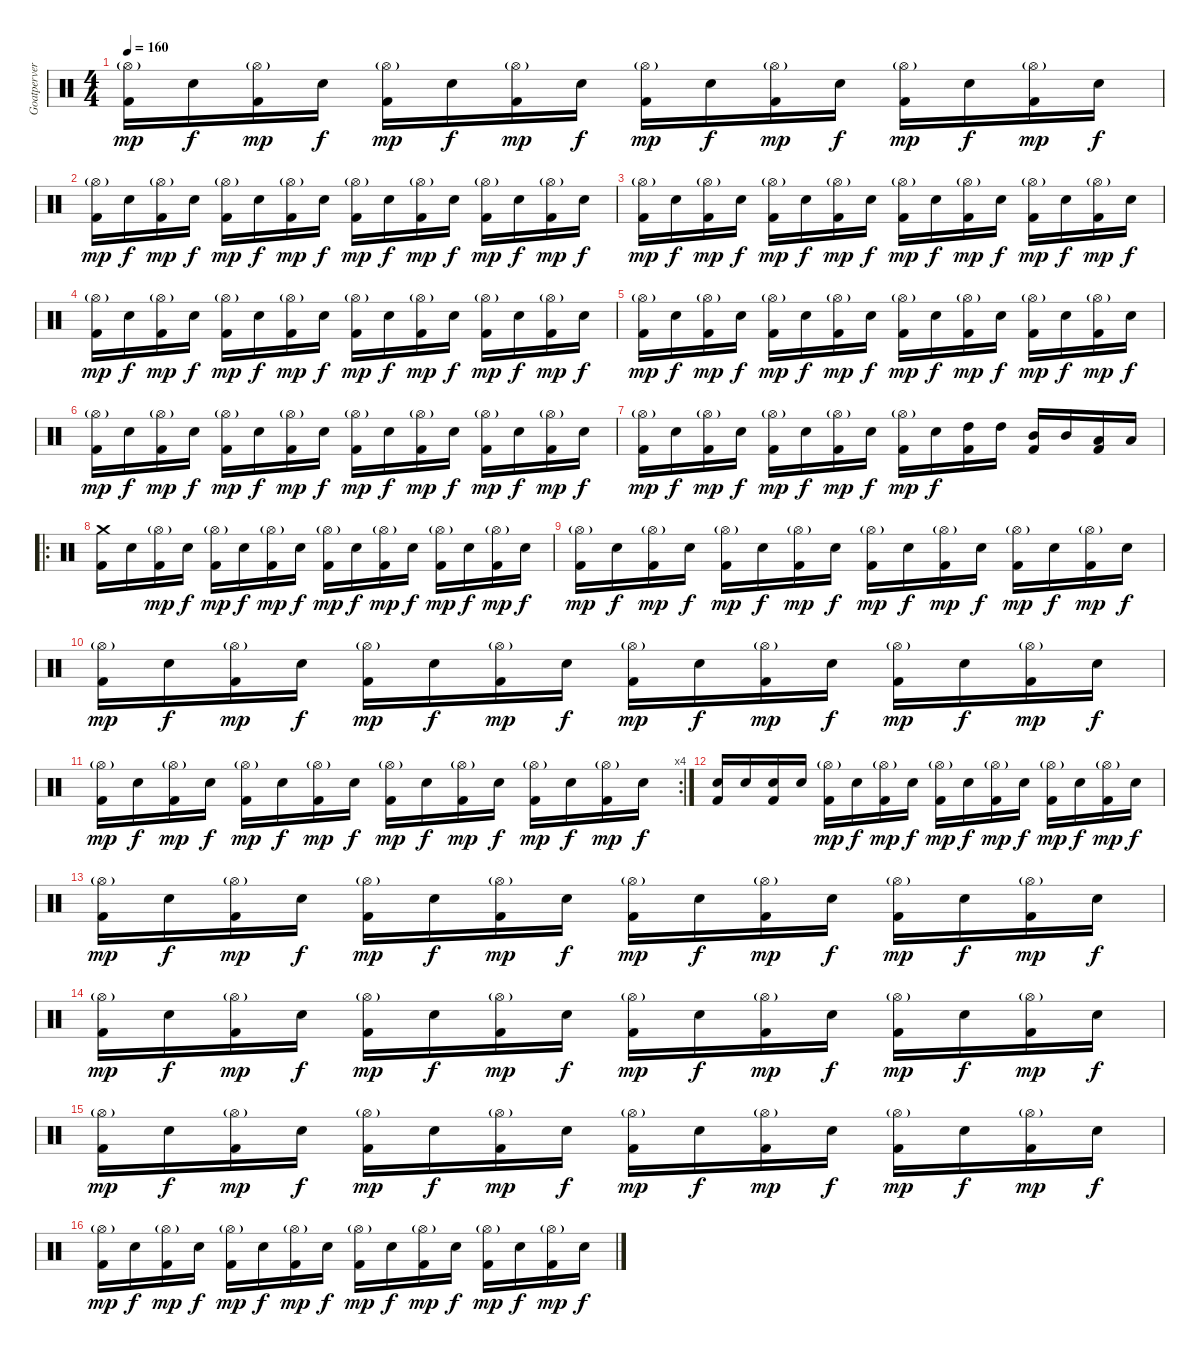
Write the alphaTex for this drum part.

\track ("Goatpervertor " "Goatperver") {instrument percussion}
\staff {score}
\articulation defaults
\ts (4 4)
\tempo 160
\clef neutral
\ks c
("Hi-Hat (open)"{g} "Kick (hit) 2").16{dy mp} "Electric Snare (hit)".16{dy f} ("Hi-Hat (open)"{g} "Kick (hit) 2").16{dy mp} "Electric Snare (hit)".16{dy f} ("Hi-Hat (open)"{g} "Kick (hit) 2").16{dy mp} "Electric Snare (hit)".16{dy f} ("Hi-Hat (open)"{g} "Kick (hit) 2").16{dy mp} "Electric Snare (hit)".16{dy f} ("Hi-Hat (open)"{g} "Kick (hit) 2").16{dy mp} "Electric Snare (hit)".16{dy f} ("Hi-Hat (open)"{g} "Kick (hit) 2").16{dy mp} "Electric Snare (hit)".16{dy f} ("Hi-Hat (open)"{g} "Kick (hit) 2").16{dy mp} "Electric Snare (hit)".16{dy f} ("Hi-Hat (open)"{g} "Kick (hit) 2").16{dy mp} "Electric Snare (hit)".16{dy f} |
("Hi-Hat (open)"{g} "Kick (hit) 2").16{dy mp} "Electric Snare (hit)".16{dy f} ("Hi-Hat (open)"{g} "Kick (hit) 2").16{dy mp} "Electric Snare (hit)".16{dy f} ("Hi-Hat (open)"{g} "Kick (hit) 2").16{dy mp} "Electric Snare (hit)".16{dy f} ("Hi-Hat (open)"{g} "Kick (hit) 2").16{dy mp} "Electric Snare (hit)".16{dy f} ("Hi-Hat (open)"{g} "Kick (hit) 2").16{dy mp} "Electric Snare (hit)".16{dy f} ("Hi-Hat (open)"{g} "Kick (hit) 2").16{dy mp} "Electric Snare (hit)".16{dy f} ("Hi-Hat (open)"{g} "Kick (hit) 2").16{dy mp} "Electric Snare (hit)".16{dy f} ("Hi-Hat (open)"{g} "Kick (hit) 2").16{dy mp} "Electric Snare (hit)".16{dy f} |
("Hi-Hat (open)"{g} "Kick (hit) 2").16{dy mp} "Electric Snare (hit)".16{dy f} ("Hi-Hat (open)"{g} "Kick (hit) 2").16{dy mp} "Electric Snare (hit)".16{dy f} ("Hi-Hat (open)"{g} "Kick (hit) 2").16{dy mp} "Electric Snare (hit)".16{dy f} ("Hi-Hat (open)"{g} "Kick (hit) 2").16{dy mp} "Electric Snare (hit)".16{dy f} ("Hi-Hat (open)"{g} "Kick (hit) 2").16{dy mp} "Electric Snare (hit)".16{dy f} ("Hi-Hat (open)"{g} "Kick (hit) 2").16{dy mp} "Electric Snare (hit)".16{dy f} ("Hi-Hat (open)"{g} "Kick (hit) 2").16{dy mp} "Electric Snare (hit)".16{dy f} ("Hi-Hat (open)"{g} "Kick (hit) 2").16{dy mp} "Electric Snare (hit)".16{dy f} |
("Hi-Hat (open)"{g} "Kick (hit) 2").16{dy mp} "Electric Snare (hit)".16{dy f} ("Hi-Hat (open)"{g} "Kick (hit) 2").16{dy mp} "Electric Snare (hit)".16{dy f} ("Hi-Hat (open)"{g} "Kick (hit) 2").16{dy mp} "Electric Snare (hit)".16{dy f} ("Hi-Hat (open)"{g} "Kick (hit) 2").16{dy mp} "Electric Snare (hit)".16{dy f} ("Hi-Hat (open)"{g} "Kick (hit) 2").16{dy mp} "Electric Snare (hit)".16{dy f} ("Hi-Hat (open)"{g} "Kick (hit) 2").16{dy mp} "Electric Snare (hit)".16{dy f} ("Hi-Hat (open)"{g} "Kick (hit) 2").16{dy mp} "Electric Snare (hit)".16{dy f} ("Hi-Hat (open)"{g} "Kick (hit) 2").16{dy mp} "Electric Snare (hit)".16{dy f} |
("Hi-Hat (open)"{g} "Kick (hit) 2").16{dy mp} "Electric Snare (hit)".16{dy f} ("Hi-Hat (open)"{g} "Kick (hit) 2").16{dy mp} "Electric Snare (hit)".16{dy f} ("Hi-Hat (open)"{g} "Kick (hit) 2").16{dy mp} "Electric Snare (hit)".16{dy f} ("Hi-Hat (open)"{g} "Kick (hit) 2").16{dy mp} "Electric Snare (hit)".16{dy f} ("Hi-Hat (open)"{g} "Kick (hit) 2").16{dy mp} "Electric Snare (hit)".16{dy f} ("Hi-Hat (open)"{g} "Kick (hit) 2").16{dy mp} "Electric Snare (hit)".16{dy f} ("Hi-Hat (open)"{g} "Kick (hit) 2").16{dy mp} "Electric Snare (hit)".16{dy f} ("Hi-Hat (open)"{g} "Kick (hit) 2").16{dy mp} "Electric Snare (hit)".16{dy f} |
("Hi-Hat (open)"{g} "Kick (hit) 2").16{dy mp} "Electric Snare (hit)".16{dy f} ("Hi-Hat (open)"{g} "Kick (hit) 2").16{dy mp} "Electric Snare (hit)".16{dy f} ("Hi-Hat (open)"{g} "Kick (hit) 2").16{dy mp} "Electric Snare (hit)".16{dy f} ("Hi-Hat (open)"{g} "Kick (hit) 2").16{dy mp} "Electric Snare (hit)".16{dy f} ("Hi-Hat (open)"{g} "Kick (hit) 2").16{dy mp} "Electric Snare (hit)".16{dy f} ("Hi-Hat (open)"{g} "Kick (hit) 2").16{dy mp} "Electric Snare (hit)".16{dy f} ("Hi-Hat (open)"{g} "Kick (hit) 2").16{dy mp} "Electric Snare (hit)".16{dy f} ("Hi-Hat (open)"{g} "Kick (hit) 2").16{dy mp} "Electric Snare (hit)".16{dy f} |
("Hi-Hat (open)"{g} "Kick (hit) 2").16{dy mp} "Electric Snare (hit)".16{dy f} ("Hi-Hat (open)"{g} "Kick (hit) 2").16{dy mp} "Electric Snare (hit)".16{dy f} ("Hi-Hat (open)"{g} "Kick (hit) 2").16{dy mp} "Electric Snare (hit)".16{dy f} ("Hi-Hat (open)"{g} "Kick (hit) 2").16{dy mp} "Electric Snare (hit)".16{dy f} ("Hi-Hat (open)"{g} "Kick (hit) 2").16{dy mp} "Electric Snare (hit)".16{dy f} ("High Tom (hit)" "Kick (hit) 2").16 "High Tom (hit)".16 ("Mid Tom (hit)" "Kick (hit) 2").16 "Mid Tom (hit)".16 ("Low Tom (hit)" "Kick (hit) 2").16 "Low Tom (hit)".16 |
\ro
("Crash medium (hit)" "Kick (hit) 2").16 "Electric Snare (hit)".16 ("Hi-Hat (open)"{g} "Kick (hit) 2").16{dy mp} "Electric Snare (hit)".16{dy f} ("Hi-Hat (open)"{g} "Kick (hit) 2").16{dy mp} "Electric Snare (hit)".16{dy f} ("Hi-Hat (open)"{g} "Kick (hit) 2").16{dy mp} "Electric Snare (hit)".16{dy f} ("Hi-Hat (open)"{g} "Kick (hit) 2").16{dy mp} "Electric Snare (hit)".16{dy f} ("Hi-Hat (open)"{g} "Kick (hit) 2").16{dy mp} "Electric Snare (hit)".16{dy f} ("Hi-Hat (open)"{g} "Kick (hit) 2").16{dy mp} "Electric Snare (hit)".16{dy f} ("Hi-Hat (open)"{g} "Kick (hit) 2").16{dy mp} "Electric Snare (hit)".16{dy f} |
("Hi-Hat (open)"{g} "Kick (hit) 2").16{dy mp} "Electric Snare (hit)".16{dy f} ("Hi-Hat (open)"{g} "Kick (hit) 2").16{dy mp} "Electric Snare (hit)".16{dy f} ("Hi-Hat (open)"{g} "Kick (hit) 2").16{dy mp} "Electric Snare (hit)".16{dy f} ("Hi-Hat (open)"{g} "Kick (hit) 2").16{dy mp} "Electric Snare (hit)".16{dy f} ("Hi-Hat (open)"{g} "Kick (hit) 2").16{dy mp} "Electric Snare (hit)".16{dy f} ("Hi-Hat (open)"{g} "Kick (hit) 2").16{dy mp} "Electric Snare (hit)".16{dy f} ("Hi-Hat (open)"{g} "Kick (hit) 2").16{dy mp} "Electric Snare (hit)".16{dy f} ("Hi-Hat (open)"{g} "Kick (hit) 2").16{dy mp} "Electric Snare (hit)".16{dy f} |
("Hi-Hat (open)"{g} "Kick (hit) 2").16{dy mp} "Electric Snare (hit)".16{dy f} ("Hi-Hat (open)"{g} "Kick (hit) 2").16{dy mp} "Electric Snare (hit)".16{dy f} ("Hi-Hat (open)"{g} "Kick (hit) 2").16{dy mp} "Electric Snare (hit)".16{dy f} ("Hi-Hat (open)"{g} "Kick (hit) 2").16{dy mp} "Electric Snare (hit)".16{dy f} ("Hi-Hat (open)"{g} "Kick (hit) 2").16{dy mp} "Electric Snare (hit)".16{dy f} ("Hi-Hat (open)"{g} "Kick (hit) 2").16{dy mp} "Electric Snare (hit)".16{dy f} ("Hi-Hat (open)"{g} "Kick (hit) 2").16{dy mp} "Electric Snare (hit)".16{dy f} ("Hi-Hat (open)"{g} "Kick (hit) 2").16{dy mp} "Electric Snare (hit)".16{dy f} |
\rc 4
("Hi-Hat (open)"{g} "Kick (hit) 2").16{dy mp} "Electric Snare (hit)".16{dy f} ("Hi-Hat (open)"{g} "Kick (hit) 2").16{dy mp} "Electric Snare (hit)".16{dy f} ("Hi-Hat (open)"{g} "Kick (hit) 2").16{dy mp} "Electric Snare (hit)".16{dy f} ("Hi-Hat (open)"{g} "Kick (hit) 2").16{dy mp} "Electric Snare (hit)".16{dy f} ("Hi-Hat (open)"{g} "Kick (hit) 2").16{dy mp} "Electric Snare (hit)".16{dy f} ("Hi-Hat (open)"{g} "Kick (hit) 2").16{dy mp} "Electric Snare (hit)".16{dy f} ("Hi-Hat (open)"{g} "Kick (hit) 2").16{dy mp} "Electric Snare (hit)".16{dy f} ("Hi-Hat (open)"{g} "Kick (hit) 2").16{dy mp} "Electric Snare (hit)".16{dy f} |
("Electric Snare (hit)" "Kick (hit) 2").16 "Electric Snare (hit)".16 ("Electric Snare (hit)" "Kick (hit) 2").16 "Electric Snare (hit)".16 ("Hi-Hat (open)"{g} "Kick (hit) 2").16{dy mp} "Electric Snare (hit)".16{dy f} ("Hi-Hat (open)"{g} "Kick (hit) 2").16{dy mp} "Electric Snare (hit)".16{dy f} ("Hi-Hat (open)"{g} "Kick (hit) 2").16{dy mp} "Electric Snare (hit)".16{dy f} ("Hi-Hat (open)"{g} "Kick (hit) 2").16{dy mp} "Electric Snare (hit)".16{dy f} ("Hi-Hat (open)"{g} "Kick (hit) 2").16{dy mp} "Electric Snare (hit)".16{dy f} ("Hi-Hat (open)"{g} "Kick (hit) 2").16{dy mp} "Electric Snare (hit)".16{dy f} |
("Hi-Hat (open)"{g} "Kick (hit) 2").16{dy mp} "Electric Snare (hit)".16{dy f} ("Hi-Hat (open)"{g} "Kick (hit) 2").16{dy mp} "Electric Snare (hit)".16{dy f} ("Hi-Hat (open)"{g} "Kick (hit) 2").16{dy mp} "Electric Snare (hit)".16{dy f} ("Hi-Hat (open)"{g} "Kick (hit) 2").16{dy mp} "Electric Snare (hit)".16{dy f} ("Hi-Hat (open)"{g} "Kick (hit) 2").16{dy mp} "Electric Snare (hit)".16{dy f} ("Hi-Hat (open)"{g} "Kick (hit) 2").16{dy mp} "Electric Snare (hit)".16{dy f} ("Hi-Hat (open)"{g} "Kick (hit) 2").16{dy mp} "Electric Snare (hit)".16{dy f} ("Hi-Hat (open)"{g} "Kick (hit) 2").16{dy mp} "Electric Snare (hit)".16{dy f} |
("Hi-Hat (open)"{g} "Kick (hit) 2").16{dy mp} "Electric Snare (hit)".16{dy f} ("Hi-Hat (open)"{g} "Kick (hit) 2").16{dy mp} "Electric Snare (hit)".16{dy f} ("Hi-Hat (open)"{g} "Kick (hit) 2").16{dy mp} "Electric Snare (hit)".16{dy f} ("Hi-Hat (open)"{g} "Kick (hit) 2").16{dy mp} "Electric Snare (hit)".16{dy f} ("Hi-Hat (open)"{g} "Kick (hit) 2").16{dy mp} "Electric Snare (hit)".16{dy f} ("Hi-Hat (open)"{g} "Kick (hit) 2").16{dy mp} "Electric Snare (hit)".16{dy f} ("Hi-Hat (open)"{g} "Kick (hit) 2").16{dy mp} "Electric Snare (hit)".16{dy f} ("Hi-Hat (open)"{g} "Kick (hit) 2").16{dy mp} "Electric Snare (hit)".16{dy f} |
("Hi-Hat (open)"{g} "Kick (hit) 2").16{dy mp} "Electric Snare (hit)".16{dy f} ("Hi-Hat (open)"{g} "Kick (hit) 2").16{dy mp} "Electric Snare (hit)".16{dy f} ("Hi-Hat (open)"{g} "Kick (hit) 2").16{dy mp} "Electric Snare (hit)".16{dy f} ("Hi-Hat (open)"{g} "Kick (hit) 2").16{dy mp} "Electric Snare (hit)".16{dy f} ("Hi-Hat (open)"{g} "Kick (hit) 2").16{dy mp} "Electric Snare (hit)".16{dy f} ("Hi-Hat (open)"{g} "Kick (hit) 2").16{dy mp} "Electric Snare (hit)".16{dy f} ("Hi-Hat (open)"{g} "Kick (hit) 2").16{dy mp} "Electric Snare (hit)".16{dy f} ("Hi-Hat (open)"{g} "Kick (hit) 2").16{dy mp} "Electric Snare (hit)".16{dy f} |
("Hi-Hat (open)"{g} "Kick (hit) 2").16{dy mp} "Electric Snare (hit)".16{dy f} ("Hi-Hat (open)"{g} "Kick (hit) 2").16{dy mp} "Electric Snare (hit)".16{dy f} ("Hi-Hat (open)"{g} "Kick (hit) 2").16{dy mp} "Electric Snare (hit)".16{dy f} ("Hi-Hat (open)"{g} "Kick (hit) 2").16{dy mp} "Electric Snare (hit)".16{dy f} ("Hi-Hat (open)"{g} "Kick (hit) 2").16{dy mp} "Electric Snare (hit)".16{dy f} ("Hi-Hat (open)"{g} "Kick (hit) 2").16{dy mp} "Electric Snare (hit)".16{dy f} ("Hi-Hat (open)"{g} "Kick (hit) 2").16{dy mp} "Electric Snare (hit)".16{dy f} ("Hi-Hat (open)"{g} "Kick (hit) 2").16{dy mp} "Electric Snare (hit)".16{dy f}
